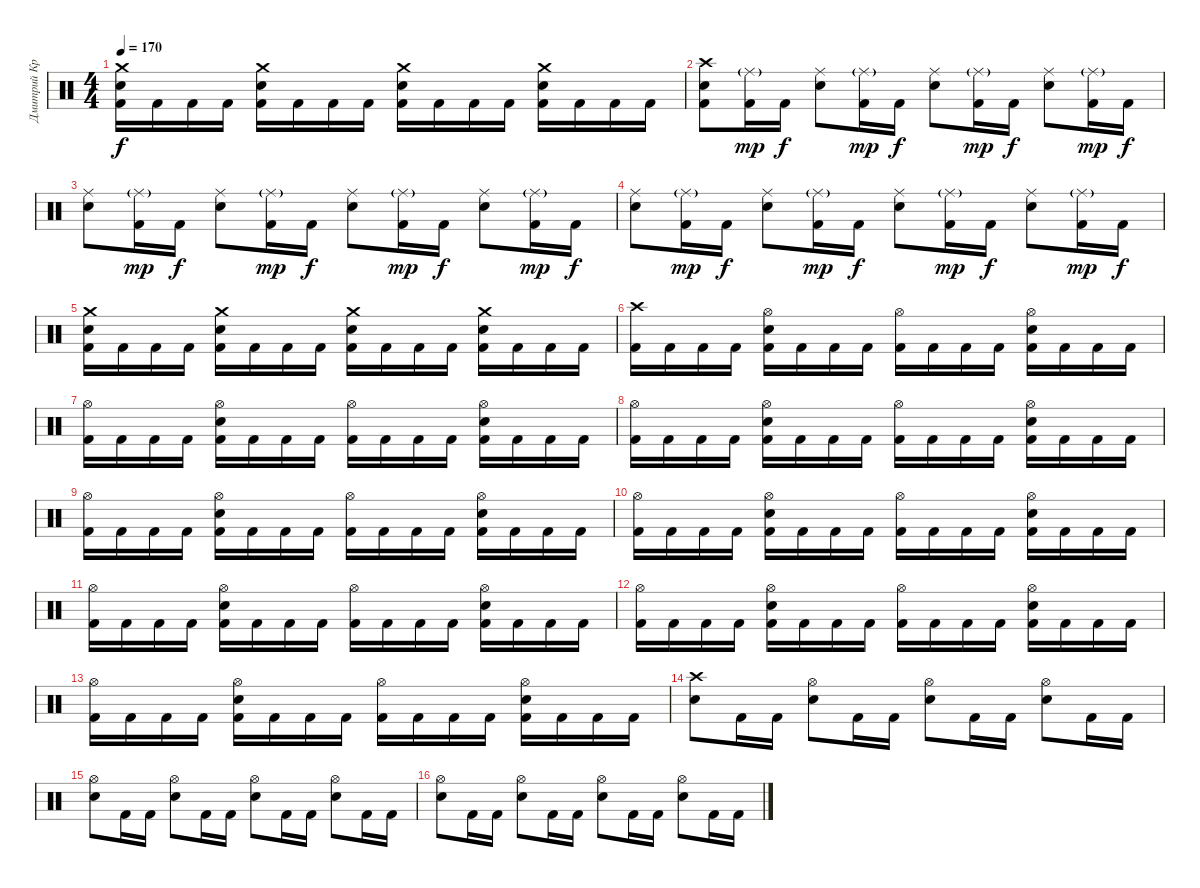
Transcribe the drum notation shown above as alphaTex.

\track ("Дмитрий Кривенков" "Дмитрий Кр") {instrument percussion}
\staff {score}
\articulation defaults
\ts (4 4)
\tempo 170
\clef neutral
\ks c
("Crash medium (hit)" "Electric Snare (hit)" "Kick (hit) 2").16{dy f} "Kick (hit) 2".16 "Kick (hit) 2".16 "Kick (hit) 2".16 ("Crash medium (hit)" "Electric Snare (hit)" "Kick (hit) 2").16 "Kick (hit) 2".16 "Kick (hit) 2".16 "Kick (hit) 2".16 ("Crash medium (hit)" "Electric Snare (hit)" "Kick (hit) 2").16 "Kick (hit) 2".16 "Kick (hit) 2".16 "Kick (hit) 2".16 ("Crash medium (hit)" "Electric Snare (hit)" "Kick (hit) 2").16 "Kick (hit) 2".16 "Kick (hit) 2".16 "Kick (hit) 2".16 |
("Crash high (hit)" "Electric Snare (hit)" "Kick (hit) 2").8 ("Ride (middle)"{g} "Kick (hit) 2").16{dy mp} "Kick (hit) 2".16{dy f} ("Ride (middle)" "Electric Snare (hit)").8 ("Ride (middle)"{g} "Kick (hit) 2").16{dy mp} "Kick (hit) 2".16{dy f} ("Ride (middle)" "Electric Snare (hit)").8 ("Ride (middle)"{g} "Kick (hit) 2").16{dy mp} "Kick (hit) 2".16{dy f} ("Ride (middle)" "Electric Snare (hit)").8 ("Ride (middle)"{g} "Kick (hit) 2").16{dy mp} "Kick (hit) 2".16{dy f} |
("Ride (middle)" "Electric Snare (hit)").8 ("Ride (middle)"{g} "Kick (hit) 2").16{dy mp} "Kick (hit) 2".16{dy f} ("Ride (middle)" "Electric Snare (hit)").8 ("Ride (middle)"{g} "Kick (hit) 2").16{dy mp} "Kick (hit) 2".16{dy f} ("Ride (middle)" "Electric Snare (hit)").8 ("Ride (middle)"{g} "Kick (hit) 2").16{dy mp} "Kick (hit) 2".16{dy f} ("Ride (middle)" "Electric Snare (hit)").8 ("Ride (middle)"{g} "Kick (hit) 2").16{dy mp} "Kick (hit) 2".16{dy f} |
("Ride (middle)" "Electric Snare (hit)").8 ("Ride (middle)"{g} "Kick (hit) 2").16{dy mp} "Kick (hit) 2".16{dy f} ("Ride (middle)" "Electric Snare (hit)").8 ("Ride (middle)"{g} "Kick (hit) 2").16{dy mp} "Kick (hit) 2".16{dy f} ("Ride (middle)" "Electric Snare (hit)").8 ("Ride (middle)"{g} "Kick (hit) 2").16{dy mp} "Kick (hit) 2".16{dy f} ("Ride (middle)" "Electric Snare (hit)").8 ("Ride (middle)"{g} "Kick (hit) 2").16{dy mp} "Kick (hit) 2".16{dy f} |
("Crash medium (hit)" "Electric Snare (hit)" "Kick (hit) 2").16 "Kick (hit) 2".16 "Kick (hit) 2".16 "Kick (hit) 2".16 ("Crash medium (hit)" "Electric Snare (hit)" "Kick (hit) 2").16 "Kick (hit) 2".16 "Kick (hit) 2".16 "Kick (hit) 2".16 ("Crash medium (hit)" "Electric Snare (hit)" "Kick (hit) 2").16 "Kick (hit) 2".16 "Kick (hit) 2".16 "Kick (hit) 2".16 ("Crash medium (hit)" "Electric Snare (hit)" "Kick (hit) 2").16 "Kick (hit) 2".16 "Kick (hit) 2".16 "Kick (hit) 2".16 |
("Crash high (hit)" "Kick (hit) 2").16 "Kick (hit) 2".16 "Kick (hit) 2".16 "Kick (hit) 2".16 ("Hi-Hat (open)" "Electric Snare (hit)" "Kick (hit) 2").16 "Kick (hit) 2".16 "Kick (hit) 2".16 "Kick (hit) 2".16 ("Hi-Hat (open)" "Kick (hit) 2").16 "Kick (hit) 2".16 "Kick (hit) 2".16 "Kick (hit) 2".16 ("Hi-Hat (open)" "Electric Snare (hit)" "Kick (hit) 2").16 "Kick (hit) 2".16 "Kick (hit) 2".16 "Kick (hit) 2".16 |
("Hi-Hat (open)" "Kick (hit) 2").16 "Kick (hit) 2".16 "Kick (hit) 2".16 "Kick (hit) 2".16 ("Hi-Hat (open)" "Electric Snare (hit)" "Kick (hit) 2").16 "Kick (hit) 2".16 "Kick (hit) 2".16 "Kick (hit) 2".16 ("Hi-Hat (open)" "Kick (hit) 2").16 "Kick (hit) 2".16 "Kick (hit) 2".16 "Kick (hit) 2".16 ("Hi-Hat (open)" "Electric Snare (hit)" "Kick (hit) 2").16 "Kick (hit) 2".16 "Kick (hit) 2".16 "Kick (hit) 2".16 |
("Hi-Hat (open)" "Kick (hit) 2").16 "Kick (hit) 2".16 "Kick (hit) 2".16 "Kick (hit) 2".16 ("Hi-Hat (open)" "Electric Snare (hit)" "Kick (hit) 2").16 "Kick (hit) 2".16 "Kick (hit) 2".16 "Kick (hit) 2".16 ("Hi-Hat (open)" "Kick (hit) 2").16 "Kick (hit) 2".16 "Kick (hit) 2".16 "Kick (hit) 2".16 ("Hi-Hat (open)" "Electric Snare (hit)" "Kick (hit) 2").16 "Kick (hit) 2".16 "Kick (hit) 2".16 "Kick (hit) 2".16 |
("Hi-Hat (open)" "Kick (hit) 2").16 "Kick (hit) 2".16 "Kick (hit) 2".16 "Kick (hit) 2".16 ("Hi-Hat (open)" "Electric Snare (hit)" "Kick (hit) 2").16 "Kick (hit) 2".16 "Kick (hit) 2".16 "Kick (hit) 2".16 ("Hi-Hat (open)" "Kick (hit) 2").16 "Kick (hit) 2".16 "Kick (hit) 2".16 "Kick (hit) 2".16 ("Hi-Hat (open)" "Electric Snare (hit)" "Kick (hit) 2").16 "Kick (hit) 2".16 "Kick (hit) 2".16 "Kick (hit) 2".16 |
("Hi-Hat (open)" "Kick (hit) 2").16 "Kick (hit) 2".16 "Kick (hit) 2".16 "Kick (hit) 2".16 ("Hi-Hat (open)" "Electric Snare (hit)" "Kick (hit) 2").16 "Kick (hit) 2".16 "Kick (hit) 2".16 "Kick (hit) 2".16 ("Hi-Hat (open)" "Kick (hit) 2").16 "Kick (hit) 2".16 "Kick (hit) 2".16 "Kick (hit) 2".16 ("Hi-Hat (open)" "Electric Snare (hit)" "Kick (hit) 2").16 "Kick (hit) 2".16 "Kick (hit) 2".16 "Kick (hit) 2".16 |
("Hi-Hat (open)" "Kick (hit) 2").16 "Kick (hit) 2".16 "Kick (hit) 2".16 "Kick (hit) 2".16 ("Hi-Hat (open)" "Electric Snare (hit)" "Kick (hit) 2").16 "Kick (hit) 2".16 "Kick (hit) 2".16 "Kick (hit) 2".16 ("Hi-Hat (open)" "Kick (hit) 2").16 "Kick (hit) 2".16 "Kick (hit) 2".16 "Kick (hit) 2".16 ("Hi-Hat (open)" "Electric Snare (hit)" "Kick (hit) 2").16 "Kick (hit) 2".16 "Kick (hit) 2".16 "Kick (hit) 2".16 |
("Hi-Hat (open)" "Kick (hit) 2").16 "Kick (hit) 2".16 "Kick (hit) 2".16 "Kick (hit) 2".16 ("Hi-Hat (open)" "Electric Snare (hit)" "Kick (hit) 2").16 "Kick (hit) 2".16 "Kick (hit) 2".16 "Kick (hit) 2".16 ("Hi-Hat (open)" "Kick (hit) 2").16 "Kick (hit) 2".16 "Kick (hit) 2".16 "Kick (hit) 2".16 ("Hi-Hat (open)" "Electric Snare (hit)" "Kick (hit) 2").16 "Kick (hit) 2".16 "Kick (hit) 2".16 "Kick (hit) 2".16 |
("Hi-Hat (open)" "Kick (hit) 2").16 "Kick (hit) 2".16 "Kick (hit) 2".16 "Kick (hit) 2".16 ("Hi-Hat (open)" "Electric Snare (hit)" "Kick (hit) 2").16 "Kick (hit) 2".16 "Kick (hit) 2".16 "Kick (hit) 2".16 ("Hi-Hat (open)" "Kick (hit) 2").16 "Kick (hit) 2".16 "Kick (hit) 2".16 "Kick (hit) 2".16 ("Hi-Hat (open)" "Electric Snare (hit)" "Kick (hit) 2").16 "Kick (hit) 2".16 "Kick (hit) 2".16 "Kick (hit) 2".16 |
("Crash high (hit)" "Electric Snare (hit)").8 "Kick (hit) 2".16 "Kick (hit) 2".16 ("Hi-Hat (open)" "Electric Snare (hit)").8 "Kick (hit) 2".16 "Kick (hit) 2".16 ("Hi-Hat (open)" "Electric Snare (hit)").8 "Kick (hit) 2".16 "Kick (hit) 2".16 ("Hi-Hat (open)" "Electric Snare (hit)").8 "Kick (hit) 2".16 "Kick (hit) 2".16 |
("Hi-Hat (open)" "Electric Snare (hit)").8 "Kick (hit) 2".16 "Kick (hit) 2".16 ("Hi-Hat (open)" "Electric Snare (hit)").8 "Kick (hit) 2".16 "Kick (hit) 2".16 ("Hi-Hat (open)" "Electric Snare (hit)").8 "Kick (hit) 2".16 "Kick (hit) 2".16 ("Hi-Hat (open)" "Electric Snare (hit)").8 "Kick (hit) 2".16 "Kick (hit) 2".16 |
("Hi-Hat (open)" "Electric Snare (hit)").8 "Kick (hit) 2".16 "Kick (hit) 2".16 ("Hi-Hat (open)" "Electric Snare (hit)").8 "Kick (hit) 2".16 "Kick (hit) 2".16 ("Hi-Hat (open)" "Electric Snare (hit)").8 "Kick (hit) 2".16 "Kick (hit) 2".16 ("Hi-Hat (open)" "Electric Snare (hit)").8 "Kick (hit) 2".16 "Kick (hit) 2".16
